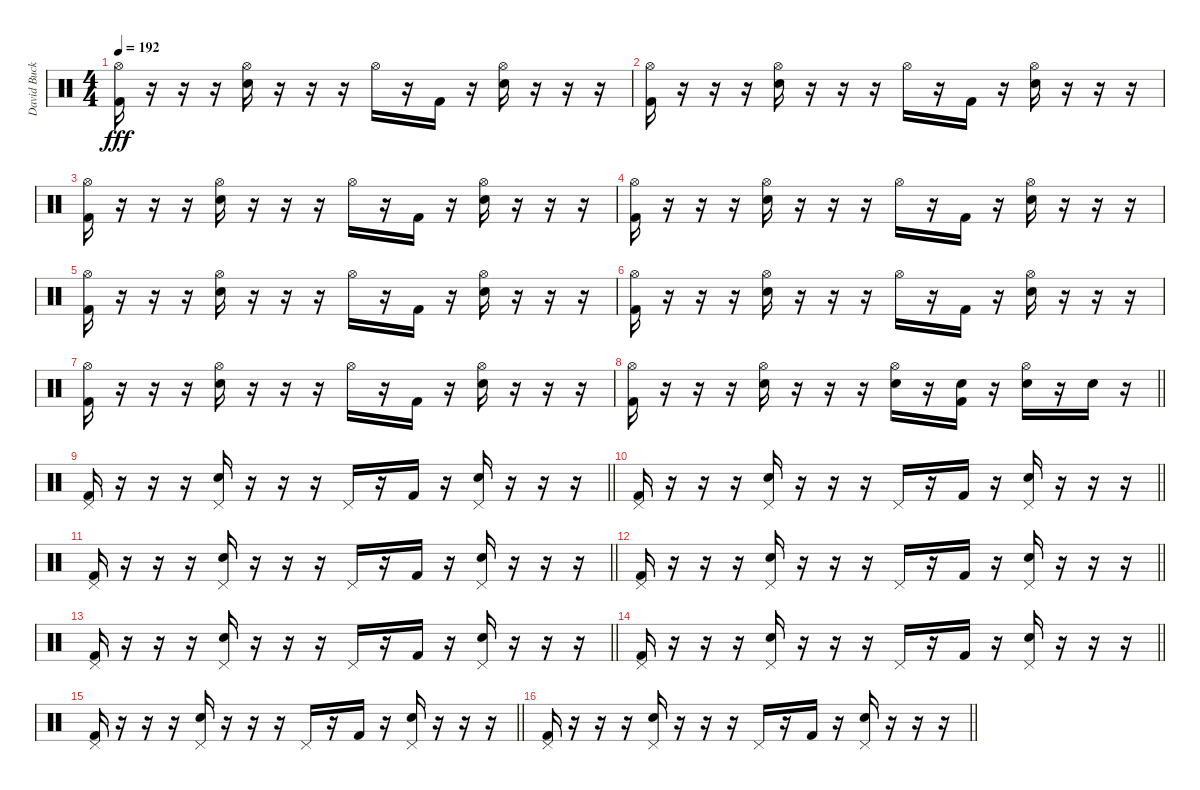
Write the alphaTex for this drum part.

\track ("David Buckner" "David Buck") {instrument percussion}
\staff {score}
\articulation defaults
\ts (4 4)
\tempo 192
\clef neutral
\ks c
("Hi-Hat (open)" "Kick (hit) 2").16{dy fff} r.16 r.16 r.16 ("Hi-Hat (open)" "Electric Snare (hit)").16 r.16 r.16 r.16 "Hi-Hat (open)".16 r.16 "Kick (hit) 2".16 r.16 ("Hi-Hat (open)" "Electric Snare (hit)").16 r.16 r.16 r.16 |
("Hi-Hat (open)" "Kick (hit) 2").16 r.16 r.16 r.16 ("Hi-Hat (open)" "Electric Snare (hit)").16 r.16 r.16 r.16 "Hi-Hat (open)".16 r.16 "Kick (hit) 2".16 r.16 ("Hi-Hat (open)" "Electric Snare (hit)").16 r.16 r.16 r.16 |
("Hi-Hat (open)" "Kick (hit) 2").16 r.16 r.16 r.16 ("Hi-Hat (open)" "Electric Snare (hit)").16 r.16 r.16 r.16 "Hi-Hat (open)".16 r.16 "Kick (hit) 2".16 r.16 ("Hi-Hat (open)" "Electric Snare (hit)").16 r.16 r.16 r.16 |
("Hi-Hat (open)" "Kick (hit) 2").16 r.16 r.16 r.16 ("Hi-Hat (open)" "Electric Snare (hit)").16 r.16 r.16 r.16 "Hi-Hat (open)".16 r.16 "Kick (hit) 2".16 r.16 ("Hi-Hat (open)" "Electric Snare (hit)").16 r.16 r.16 r.16 |
("Hi-Hat (open)" "Kick (hit) 2").16 r.16 r.16 r.16 ("Hi-Hat (open)" "Electric Snare (hit)").16 r.16 r.16 r.16 "Hi-Hat (open)".16 r.16 "Kick (hit) 2".16 r.16 ("Hi-Hat (open)" "Electric Snare (hit)").16 r.16 r.16 r.16 |
("Hi-Hat (open)" "Kick (hit) 2").16 r.16 r.16 r.16 ("Hi-Hat (open)" "Electric Snare (hit)").16 r.16 r.16 r.16 "Hi-Hat (open)".16 r.16 "Kick (hit) 2".16 r.16 ("Hi-Hat (open)" "Electric Snare (hit)").16 r.16 r.16 r.16 |
("Hi-Hat (open)" "Kick (hit) 2").16 r.16 r.16 r.16 ("Hi-Hat (open)" "Electric Snare (hit)").16 r.16 r.16 r.16 "Hi-Hat (open)".16 r.16 "Kick (hit) 2".16 r.16 ("Hi-Hat (open)" "Electric Snare (hit)").16 r.16 r.16 r.16 |
\barLineRight lightlight
("Hi-Hat (open)" "Kick (hit) 2").16 r.16 r.16 r.16 ("Hi-Hat (open)" "Electric Snare (hit)").16 r.16 r.16 r.16 ("Hi-Hat (open)" "Electric Snare (hit)").16 r.16 ("Electric Snare (hit)" "Kick (hit) 2").16 r.16 ("Hi-Hat (open)" "Electric Snare (hit)").16 r.16 "Electric Snare (hit)".16 r.16 |
\barLineRight lightlight
("Pedal Hi-Hat (hit)" "Kick (hit) 2").16 r.16 r.16 r.16 ("Pedal Hi-Hat (hit)" "Electric Snare (hit)").16 r.16 r.16 r.16 "Pedal Hi-Hat (hit)".16 r.16 "Kick (hit) 2".16 r.16 ("Pedal Hi-Hat (hit)" "Electric Snare (hit)").16 r.16 r.16 r.16 |
\barLineRight lightlight
("Pedal Hi-Hat (hit)" "Kick (hit) 2").16 r.16 r.16 r.16 ("Pedal Hi-Hat (hit)" "Electric Snare (hit)").16 r.16 r.16 r.16 "Pedal Hi-Hat (hit)".16 r.16 "Kick (hit) 2".16 r.16 ("Pedal Hi-Hat (hit)" "Electric Snare (hit)").16 r.16 r.16 r.16 |
\barLineRight lightlight
("Pedal Hi-Hat (hit)" "Kick (hit) 2").16 r.16 r.16 r.16 ("Pedal Hi-Hat (hit)" "Electric Snare (hit)").16 r.16 r.16 r.16 "Pedal Hi-Hat (hit)".16 r.16 "Kick (hit) 2".16 r.16 ("Pedal Hi-Hat (hit)" "Electric Snare (hit)").16 r.16 r.16 r.16 |
\barLineRight lightlight
("Pedal Hi-Hat (hit)" "Kick (hit) 2").16 r.16 r.16 r.16 ("Pedal Hi-Hat (hit)" "Electric Snare (hit)").16 r.16 r.16 r.16 "Pedal Hi-Hat (hit)".16 r.16 "Kick (hit) 2".16 r.16 ("Pedal Hi-Hat (hit)" "Electric Snare (hit)").16 r.16 r.16 r.16 |
\barLineRight lightlight
("Pedal Hi-Hat (hit)" "Kick (hit) 2").16 r.16 r.16 r.16 ("Pedal Hi-Hat (hit)" "Electric Snare (hit)").16 r.16 r.16 r.16 "Pedal Hi-Hat (hit)".16 r.16 "Kick (hit) 2".16 r.16 ("Pedal Hi-Hat (hit)" "Electric Snare (hit)").16 r.16 r.16 r.16 |
\barLineRight lightlight
("Pedal Hi-Hat (hit)" "Kick (hit) 2").16 r.16 r.16 r.16 ("Pedal Hi-Hat (hit)" "Electric Snare (hit)").16 r.16 r.16 r.16 "Pedal Hi-Hat (hit)".16 r.16 "Kick (hit) 2".16 r.16 ("Pedal Hi-Hat (hit)" "Electric Snare (hit)").16 r.16 r.16 r.16 |
\barLineRight lightlight
("Pedal Hi-Hat (hit)" "Kick (hit) 2").16 r.16 r.16 r.16 ("Pedal Hi-Hat (hit)" "Electric Snare (hit)").16 r.16 r.16 r.16 "Pedal Hi-Hat (hit)".16 r.16 "Kick (hit) 2".16 r.16 ("Pedal Hi-Hat (hit)" "Electric Snare (hit)").16 r.16 r.16 r.16 |
\barLineRight lightlight
("Pedal Hi-Hat (hit)" "Kick (hit) 2").16 r.16 r.16 r.16 ("Pedal Hi-Hat (hit)" "Electric Snare (hit)").16 r.16 r.16 r.16 "Pedal Hi-Hat (hit)".16 r.16 "Kick (hit) 2".16 r.16 ("Pedal Hi-Hat (hit)" "Electric Snare (hit)").16 r.16 r.16 r.16
